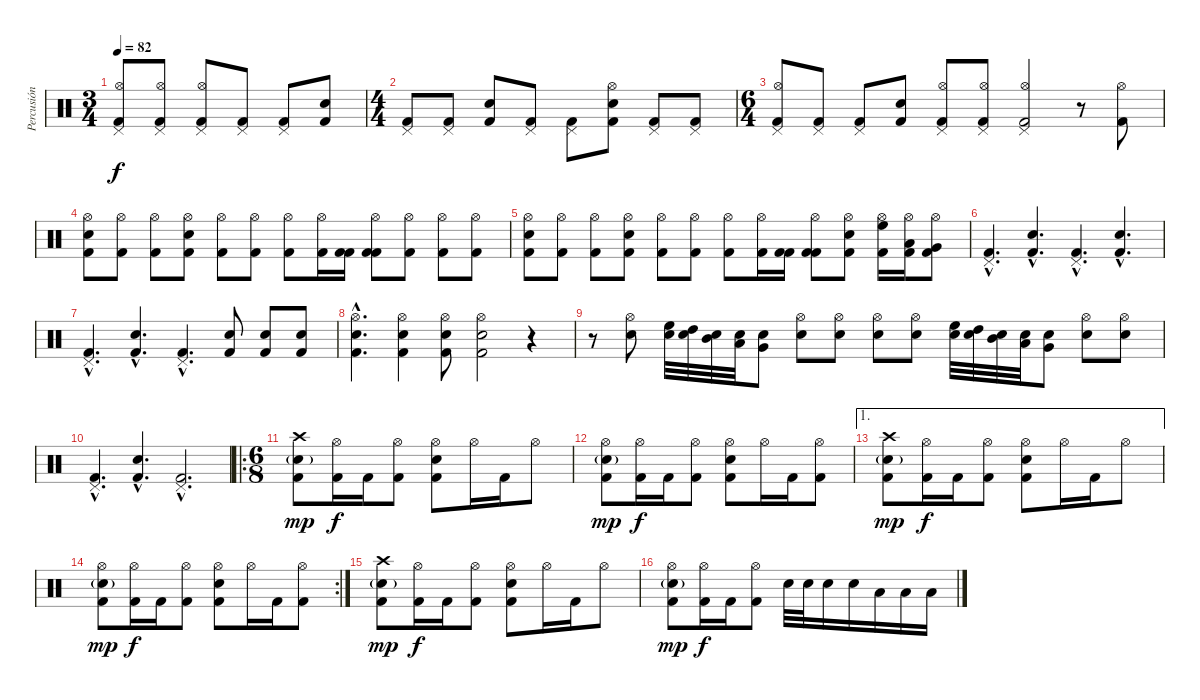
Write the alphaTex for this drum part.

\track ("Percusión" "Percusión") {instrument percussion}
\staff {score}
\articulation defaults
\ts (3 4)
\tempo 82
\clef neutral
\ks c
("Pedal Hi-Hat (hit)" "Hi-Hat (open)" "Kick (hit) 2").8{dy f} ("Pedal Hi-Hat (hit)" "Hi-Hat (open)" "Kick (hit) 2").8 ("Pedal Hi-Hat (hit)" "Hi-Hat (open)" "Kick (hit) 2").8 ("Pedal Hi-Hat (hit)" "Kick (hit) 2").8 ("Pedal Hi-Hat (hit)" "Kick (hit) 2").8 ("Snare (hit) 2" "Kick (hit) 2").8 |
\ts (4 4)
("Pedal Hi-Hat (hit)" "Kick (hit) 2").8 ("Pedal Hi-Hat (hit)" "Kick (hit) 2").8 ("Electric Snare (hit)" "Kick (hit) 2").8 ("Pedal Hi-Hat (hit)" "Kick (hit) 2").8 ("Pedal Hi-Hat (hit)" "Kick (hit) 2").8 ("Hi-Hat (open)" "Snare (hit) 2" "Kick (hit) 2").8 ("Pedal Hi-Hat (hit)" "Kick (hit) 2").8 ("Pedal Hi-Hat (hit)" "Kick (hit) 2").8 |
\ts (6 4)
("Pedal Hi-Hat (hit)" "Hi-Hat (open)" "Kick (hit) 2").8 ("Pedal Hi-Hat (hit)" "Kick (hit) 2").8 ("Pedal Hi-Hat (hit)" "Kick (hit) 2").8 ("Snare (hit) 2" "Kick (hit) 2").8 ("Pedal Hi-Hat (hit)" "Hi-Hat (open)" "Kick (hit) 2").8 ("Pedal Hi-Hat (hit)" "Hi-Hat (open)" "Kick (hit) 2").8 ("Pedal Hi-Hat (hit)" "Hi-Hat (open)" "Kick (hit) 2").2 r.8 ("Hi-Hat (open)" "Kick (hit) 2").8 |
("Hi-Hat (open)" "Electric Snare (hit)" "Kick (hit) 2").8 ("Hi-Hat (open)" "Kick (hit) 2").8 ("Hi-Hat (open)" "Kick (hit) 2").8 ("Hi-Hat (open)" "Snare (hit) 2" "Kick (hit) 2").8 ("Hi-Hat (open)" "Kick (hit) 2").8 ("Hi-Hat (open)" "Kick (hit) 2").8 ("Hi-Hat (open)" "Kick (hit) 2").8 ("Hi-Hat (open)" "Kick (hit) 2").16 ("Kick (hit) 2" "Kick (hit) 2").16 ("Hi-Hat (open)" "Kick (hit) 2" "Kick (hit) 2").8 ("Hi-Hat (open)" "Kick (hit) 2").8 ("Hi-Hat (open)" "Kick (hit) 2").8 ("Hi-Hat (open)" "Kick (hit) 2").8 |
("Hi-Hat (open)" "Electric Snare (hit)" "Kick (hit) 2").8 ("Hi-Hat (open)" "Kick (hit) 2").8 ("Hi-Hat (open)" "Kick (hit) 2").8 ("Hi-Hat (open)" "Snare (hit) 2" "Kick (hit) 2").8 ("Hi-Hat (open)" "Kick (hit) 2").8 ("Hi-Hat (open)" "Kick (hit) 2").8 ("Hi-Hat (open)" "Kick (hit) 2").8 ("Hi-Hat (open)" "Kick (hit) 2").16 ("Kick (hit) 2" "Kick (hit) 2").16 ("Hi-Hat (open)" "Kick (hit) 2" "Kick (hit) 2").8 ("Hi-Hat (open)" "Snare (hit) 2" "Kick (hit) 2").8 ("Hi-Hat (open)" "High Floor Tom (hit)" "Kick (hit) 2").16 ("Hi-Hat (open)" "Low Tom (hit)" "Kick (hit) 2").16 ("Hi-Hat (open)" "Very Low Tom (hit)" "Kick (hit) 2").8 |
("Pedal Hi-Hat (hit)"{hac} "Kick (hit) 2"{hac}).4{d} ("Snare (hit) 2"{hac} "Kick (hit) 2"{hac}).4{d} ("Pedal Hi-Hat (hit)"{hac} "Kick (hit) 2"{hac}).4{d} ("Snare (hit) 2"{hac} "Kick (hit) 2"{hac}).4{d} |
("Pedal Hi-Hat (hit)"{hac} "Kick (hit) 2"{hac}).4{d} ("Snare (hit) 2"{hac} "Kick (hit) 2"{hac}).4{d} ("Pedal Hi-Hat (hit)"{hac} "Kick (hit) 2"{hac}).4{d} ("Snare (hit) 2" "Kick (hit) 2").8 ("Snare (hit) 2" "Kick (hit) 2").8 ("Snare (hit) 2" "Kick (hit) 2").8 |
("Snare (hit) 2"{hac} "Kick (hit) 2"{hac} "Hi-Hat (open)"{hac}).4{d} ("Snare (hit) 2" "Kick (hit) 2" "Hi-Hat (open)").4 ("Snare (hit) 2" "Kick (hit) 2" "Hi-Hat (open)").8 ("Snare (hit) 2" "Kick (hit) 2" "Hi-Hat (open)").2 r.4 |
r.8 ("Snare (hit) 2" "Hi-Hat (open)").8 ("Snare (hit) 2" "High Floor Tom (hit)").32 ("Snare (hit) 2" "High Tom (hit)").32 ("Snare (hit) 2" "Mid Tom (hit)").32 ("Snare (hit) 2" "Low Tom (hit)").32 ("Snare (hit) 2" "Very Low Tom (hit)").8 ("Snare (hit) 2" "Hi-Hat (open)").8 ("Snare (hit) 2" "Hi-Hat (open)").8 ("Snare (hit) 2" "Hi-Hat (open)").8 ("Snare (hit) 2" "Hi-Hat (open)").8 ("Snare (hit) 2" "High Floor Tom (hit)").32 ("Snare (hit) 2" "High Tom (hit)").32 ("Snare (hit) 2" "Mid Tom (hit)").32 ("Snare (hit) 2" "Low Tom (hit)").32 ("Snare (hit) 2" "Very Low Tom (hit)").8 ("Snare (hit) 2" "Hi-Hat (open)").8 ("Snare (hit) 2" "Hi-Hat (open)").8 |
("Pedal Hi-Hat (hit)"{hac} "Kick (hit) 2"{hac}).4{d} ("Snare (hit) 2"{hac} "Kick (hit) 2"{hac}).4{d} ("Pedal Hi-Hat (hit)"{hac} "Kick (hit) 2"{hac}).2{d} |
\ro
\ts (6 8)
("Crash high (hit)" "Snare (hit) 2"{g} "Kick (hit) 2").8{dy mp} ("Hi-Hat (open)" "Kick (hit) 2").16{dy f} "Kick (hit) 2".16 ("Hi-Hat (open)" "Kick (hit) 2").8 ("Hi-Hat (open)" "Electric Snare (hit)" "Kick (hit) 2").8 "Hi-Hat (open)".16 "Kick (hit) 2".16 "Hi-Hat (open)".8 |
("Hi-Hat (open)" "Snare (hit) 2"{g} "Kick (hit) 2").8{dy mp} ("Hi-Hat (open)" "Kick (hit) 2").16{dy f} "Kick (hit) 2".16 ("Hi-Hat (open)" "Kick (hit) 2").8 ("Hi-Hat (open)" "Electric Snare (hit)" "Kick (hit) 2").8 "Hi-Hat (open)".16 "Kick (hit) 2".16 ("Hi-Hat (open)" "Kick (hit) 2").8 |
\ae 1
("Crash high (hit)" "Snare (hit) 2"{g} "Kick (hit) 2").8{dy mp} ("Hi-Hat (open)" "Kick (hit) 2").16{dy f} "Kick (hit) 2".16 ("Hi-Hat (open)" "Kick (hit) 2").8 ("Hi-Hat (open)" "Electric Snare (hit)" "Kick (hit) 2").8 "Hi-Hat (open)".16 "Kick (hit) 2".16 "Hi-Hat (open)".8 |
\rc 2
("Hi-Hat (open)" "Snare (hit) 2"{g} "Kick (hit) 2").8{dy mp} ("Hi-Hat (open)" "Kick (hit) 2").16{dy f} "Kick (hit) 2".16 ("Hi-Hat (open)" "Kick (hit) 2").8 ("Hi-Hat (open)" "Electric Snare (hit)" "Kick (hit) 2").8 "Hi-Hat (open)".16 "Kick (hit) 2".16 ("Hi-Hat (open)" "Kick (hit) 2").8 |
("Crash high (hit)" "Snare (hit) 2"{g} "Kick (hit) 2").8{dy mp} ("Hi-Hat (open)" "Kick (hit) 2").16{dy f} "Kick (hit) 2".16 ("Hi-Hat (open)" "Kick (hit) 2").8 ("Hi-Hat (open)" "Electric Snare (hit)" "Kick (hit) 2").8 "Hi-Hat (open)".16 "Kick (hit) 2".16 "Hi-Hat (open)".8 |
("Hi-Hat (open)" "Snare (hit) 2"{g} "Kick (hit) 2").8{dy mp} ("Hi-Hat (open)" "Kick (hit) 2").16{dy f} "Kick (hit) 2".16 ("Hi-Hat (open)" "Kick (hit) 2").8 "Electric Snare (hit)".32 "Electric Snare (hit)".32 "Electric Snare (hit)".16 "Electric Snare (hit)".16 "Low Tom (hit)".16 "Low Tom (hit)".16 "Low Tom (hit)".16
